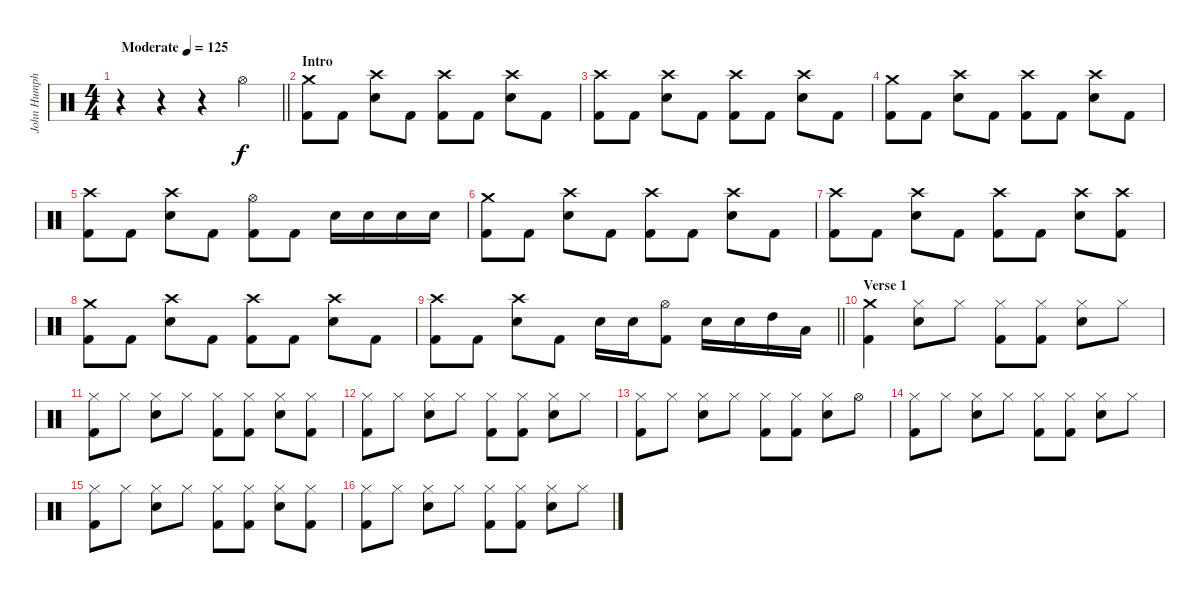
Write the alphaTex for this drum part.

\track ("John Humphrey - Drums" "John Humph") {instrument percussion}
\staff {score}
\articulation defaults
\ts (4 4)
\tempo (125 "Moderate")
\clef neutral
\barLineRight lightlight
\ks c
r.4{dy f} r.4 r.4 "Hi-Hat (open)".4 |
\section ("" "Intro")
("Crash medium (hit)" "Kick (hit) 2").8 "Kick (hit) 2".8 ("Crash high (hit)" "Electric Snare (hit)").8 "Kick (hit) 2".8 ("Crash high (hit)" "Kick (hit) 2").8 "Kick (hit) 2".8 ("Crash high (hit)" "Electric Snare (hit)").8 "Kick (hit) 2".8 |
("Crash high (hit)" "Kick (hit) 2").8 "Kick (hit) 2".8 ("Crash high (hit)" "Electric Snare (hit)").8 "Kick (hit) 2".8 ("Crash high (hit)" "Kick (hit) 2").8 "Kick (hit) 2".8 ("Crash high (hit)" "Electric Snare (hit)").8 "Kick (hit) 2".8 |
("Crash medium (hit)" "Kick (hit) 2").8 "Kick (hit) 2".8 ("Crash high (hit)" "Electric Snare (hit)").8 "Kick (hit) 2".8 ("Crash high (hit)" "Kick (hit) 2").8 "Kick (hit) 2".8 ("Crash high (hit)" "Electric Snare (hit)").8 "Kick (hit) 2".8 |
("Crash high (hit)" "Kick (hit) 2").8 "Kick (hit) 2".8 ("Crash high (hit)" "Electric Snare (hit)").8 "Kick (hit) 2".8 ("Hi-Hat (open)" "Kick (hit) 2").8 "Kick (hit) 2".8 "Electric Snare (hit)".16 "Electric Snare (hit)".16 "Electric Snare (hit)".16 "Electric Snare (hit)".16 |
("Crash medium (hit)" "Kick (hit) 2").8 "Kick (hit) 2".8 ("Crash high (hit)" "Electric Snare (hit)").8 "Kick (hit) 2".8 ("Crash high (hit)" "Kick (hit) 2").8 "Kick (hit) 2".8 ("Crash high (hit)" "Electric Snare (hit)").8 "Kick (hit) 2".8 |
("Crash high (hit)" "Kick (hit) 2").8 "Kick (hit) 2".8 ("Crash high (hit)" "Electric Snare (hit)").8 "Kick (hit) 2".8 ("Crash high (hit)" "Kick (hit) 2").8 "Kick (hit) 2".8 ("Crash high (hit)" "Electric Snare (hit)").8 ("Crash high (hit)" "Kick (hit) 2").8 |
("Crash medium (hit)" "Kick (hit) 2").8 "Kick (hit) 2".8 ("Crash high (hit)" "Electric Snare (hit)").8 "Kick (hit) 2".8 ("Crash high (hit)" "Kick (hit) 2").8 "Kick (hit) 2".8 ("Crash high (hit)" "Electric Snare (hit)").8 "Kick (hit) 2".8 |
\barLineRight lightlight
("Crash high (hit)" "Kick (hit) 2").8 "Kick (hit) 2".8 ("Crash high (hit)" "Electric Snare (hit)").8 "Kick (hit) 2".8 "Electric Snare (hit)".16 "Electric Snare (hit)".16 ("Hi-Hat (open)" "Kick (hit) 2").8 "Electric Snare (hit)".16 "Electric Snare (hit)".16 "High Tom (hit)".16 "Low Tom (hit)".16 |
\section ("" "Verse 1")
("Crash medium (hit)" "Kick (hit) 2").4 ("Hi-Hat (closed)" "Electric Snare (hit)").8 "Hi-Hat (closed)".8 ("Hi-Hat (closed)" "Kick (hit) 2").8 ("Hi-Hat (closed)" "Kick (hit) 2").8 ("Hi-Hat (closed)" "Electric Snare (hit)").8 "Hi-Hat (closed)".8 |
("Hi-Hat (closed)" "Kick (hit) 2").8 "Hi-Hat (closed)".8 ("Hi-Hat (closed)" "Electric Snare (hit)").8 "Hi-Hat (closed)".8 ("Hi-Hat (closed)" "Kick (hit) 2").8 ("Hi-Hat (closed)" "Kick (hit) 2").8 ("Hi-Hat (closed)" "Electric Snare (hit)").8 ("Hi-Hat (closed)" "Kick (hit) 2").8 |
("Hi-Hat (closed)" "Kick (hit) 2").8 "Hi-Hat (closed)".8 ("Hi-Hat (closed)" "Electric Snare (hit)").8 "Hi-Hat (closed)".8 ("Hi-Hat (closed)" "Kick (hit) 2").8 ("Hi-Hat (closed)" "Kick (hit) 2").8 ("Hi-Hat (closed)" "Electric Snare (hit)").8 "Hi-Hat (closed)".8 |
("Hi-Hat (closed)" "Kick (hit) 2").8 "Hi-Hat (closed)".8 ("Hi-Hat (closed)" "Electric Snare (hit)").8 "Hi-Hat (closed)".8 ("Hi-Hat (closed)" "Kick (hit) 2").8 ("Hi-Hat (closed)" "Kick (hit) 2").8 ("Hi-Hat (closed)" "Electric Snare (hit)").8 "Hi-Hat (open)".8 |
("Hi-Hat (closed)" "Kick (hit) 2").8 "Hi-Hat (closed)".8 ("Hi-Hat (closed)" "Electric Snare (hit)").8 "Hi-Hat (closed)".8 ("Hi-Hat (closed)" "Kick (hit) 2").8 ("Hi-Hat (closed)" "Kick (hit) 2").8 ("Hi-Hat (closed)" "Electric Snare (hit)").8 "Hi-Hat (closed)".8 |
("Hi-Hat (closed)" "Kick (hit) 2").8 "Hi-Hat (closed)".8 ("Hi-Hat (closed)" "Electric Snare (hit)").8 "Hi-Hat (closed)".8 ("Hi-Hat (closed)" "Kick (hit) 2").8 ("Hi-Hat (closed)" "Kick (hit) 2").8 ("Hi-Hat (closed)" "Electric Snare (hit)").8 ("Hi-Hat (closed)" "Kick (hit) 2").8 |
("Hi-Hat (closed)" "Kick (hit) 2").8 "Hi-Hat (closed)".8 ("Hi-Hat (closed)" "Electric Snare (hit)").8 "Hi-Hat (closed)".8 ("Hi-Hat (closed)" "Kick (hit) 2").8 ("Hi-Hat (closed)" "Kick (hit) 2").8 ("Hi-Hat (closed)" "Electric Snare (hit)").8 "Hi-Hat (closed)".8
